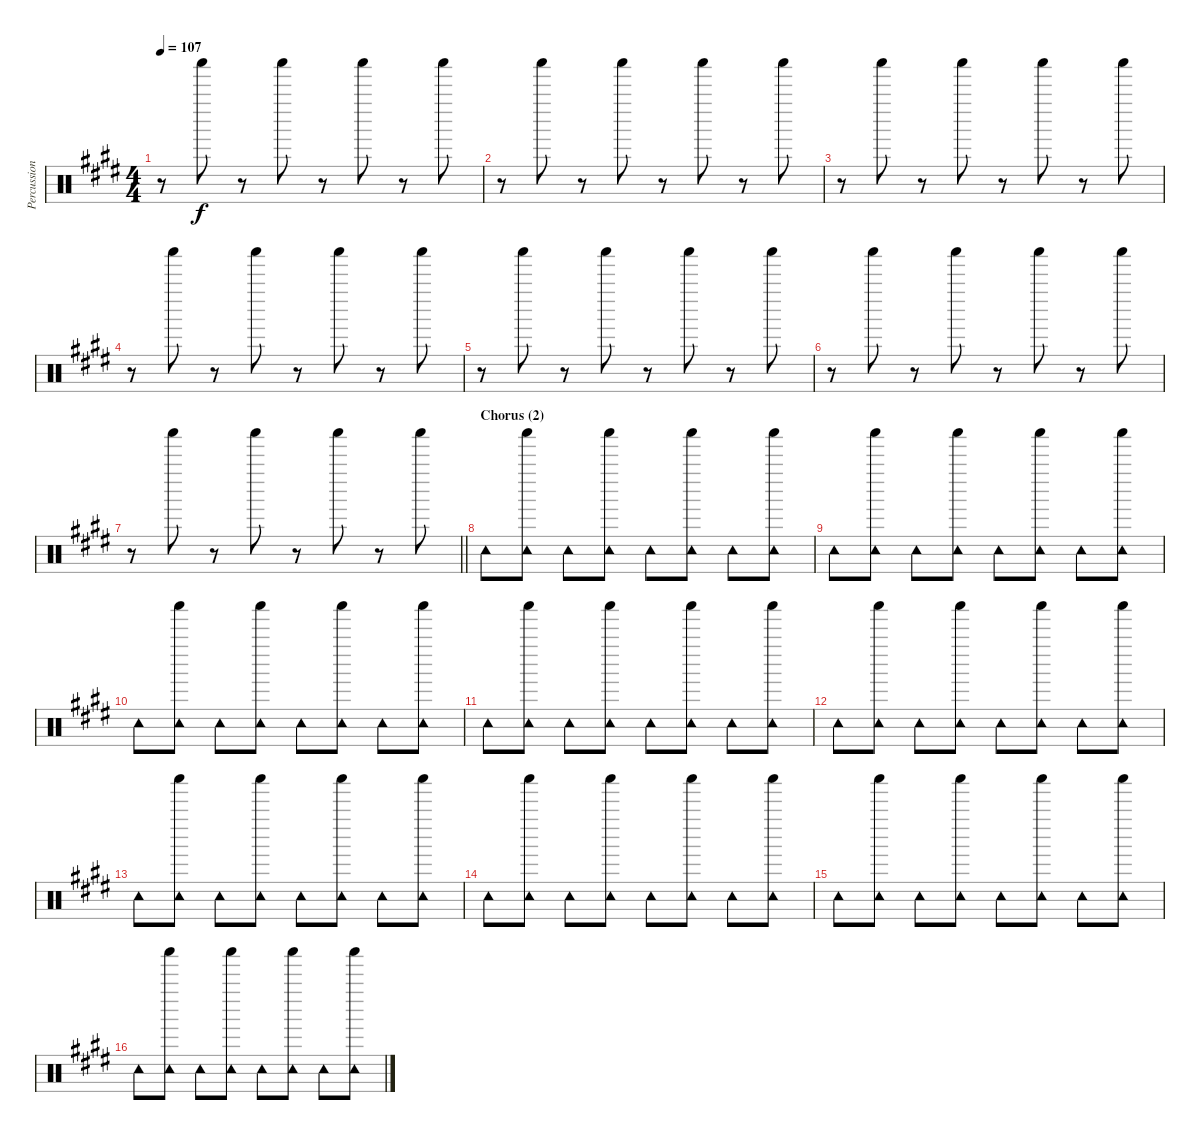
\track ("Percussion" "Percussion") {instrument percussion}
\staff {score}
\articulation defaults
\ts (4 4)
\tempo 107
\clef neutral
\ks e
r.8{dy f} "Shaker (hit)".8 r.8 "Shaker (hit)".8 r.8 "Shaker (hit)".8 r.8 "Shaker (hit)".8 |
r.8 "Shaker (hit)".8 r.8 "Shaker (hit)".8 r.8 "Shaker (hit)".8 r.8 "Shaker (hit)".8 |
r.8 "Shaker (hit)".8 r.8 "Shaker (hit)".8 r.8 "Shaker (hit)".8 r.8 "Shaker (hit)".8 |
r.8 "Shaker (hit)".8 r.8 "Shaker (hit)".8 r.8 "Shaker (hit)".8 r.8 "Shaker (hit)".8 |
r.8 "Shaker (hit)".8 r.8 "Shaker (hit)".8 r.8 "Shaker (hit)".8 r.8 "Shaker (hit)".8 |
r.8 "Shaker (hit)".8 r.8 "Shaker (hit)".8 r.8 "Shaker (hit)".8 r.8 "Shaker (hit)".8 |
\barLineRight lightlight
r.8 "Shaker (hit)".8 r.8 "Shaker (hit)".8 r.8 "Shaker (hit)".8 r.8 "Shaker (hit)".8 |
\section ("" "Chorus (2)")
"Tambourine (hit)".8 ("Shaker (hit)" "Tambourine (hit)").8 "Tambourine (hit)".8 ("Shaker (hit)" "Tambourine (hit)").8 "Tambourine (hit)".8 ("Shaker (hit)" "Tambourine (hit)").8 "Tambourine (hit)".8 ("Shaker (hit)" "Tambourine (hit)").8 |
"Tambourine (hit)".8 ("Shaker (hit)" "Tambourine (hit)").8 "Tambourine (hit)".8 ("Shaker (hit)" "Tambourine (hit)").8 "Tambourine (hit)".8 ("Shaker (hit)" "Tambourine (hit)").8 "Tambourine (hit)".8 ("Shaker (hit)" "Tambourine (hit)").8 |
"Tambourine (hit)".8 ("Shaker (hit)" "Tambourine (hit)").8 "Tambourine (hit)".8 ("Shaker (hit)" "Tambourine (hit)").8 "Tambourine (hit)".8 ("Shaker (hit)" "Tambourine (hit)").8 "Tambourine (hit)".8 ("Shaker (hit)" "Tambourine (hit)").8 |
"Tambourine (hit)".8 ("Shaker (hit)" "Tambourine (hit)").8 "Tambourine (hit)".8 ("Shaker (hit)" "Tambourine (hit)").8 "Tambourine (hit)".8 ("Shaker (hit)" "Tambourine (hit)").8 "Tambourine (hit)".8 ("Shaker (hit)" "Tambourine (hit)").8 |
"Tambourine (hit)".8 ("Shaker (hit)" "Tambourine (hit)").8 "Tambourine (hit)".8 ("Shaker (hit)" "Tambourine (hit)").8 "Tambourine (hit)".8 ("Shaker (hit)" "Tambourine (hit)").8 "Tambourine (hit)".8 ("Shaker (hit)" "Tambourine (hit)").8 |
"Tambourine (hit)".8 ("Shaker (hit)" "Tambourine (hit)").8 "Tambourine (hit)".8 ("Shaker (hit)" "Tambourine (hit)").8 "Tambourine (hit)".8 ("Shaker (hit)" "Tambourine (hit)").8 "Tambourine (hit)".8 ("Shaker (hit)" "Tambourine (hit)").8 |
"Tambourine (hit)".8 ("Shaker (hit)" "Tambourine (hit)").8 "Tambourine (hit)".8 ("Shaker (hit)" "Tambourine (hit)").8 "Tambourine (hit)".8 ("Shaker (hit)" "Tambourine (hit)").8 "Tambourine (hit)".8 ("Shaker (hit)" "Tambourine (hit)").8 |
"Tambourine (hit)".8 ("Shaker (hit)" "Tambourine (hit)").8 "Tambourine (hit)".8 ("Shaker (hit)" "Tambourine (hit)").8 "Tambourine (hit)".8 ("Shaker (hit)" "Tambourine (hit)").8 "Tambourine (hit)".8 ("Shaker (hit)" "Tambourine (hit)").8 |
"Tambourine (hit)".8 ("Shaker (hit)" "Tambourine (hit)").8 "Tambourine (hit)".8 ("Shaker (hit)" "Tambourine (hit)").8 "Tambourine (hit)".8 ("Shaker (hit)" "Tambourine (hit)").8 "Tambourine (hit)".8 ("Shaker (hit)" "Tambourine (hit)").8
